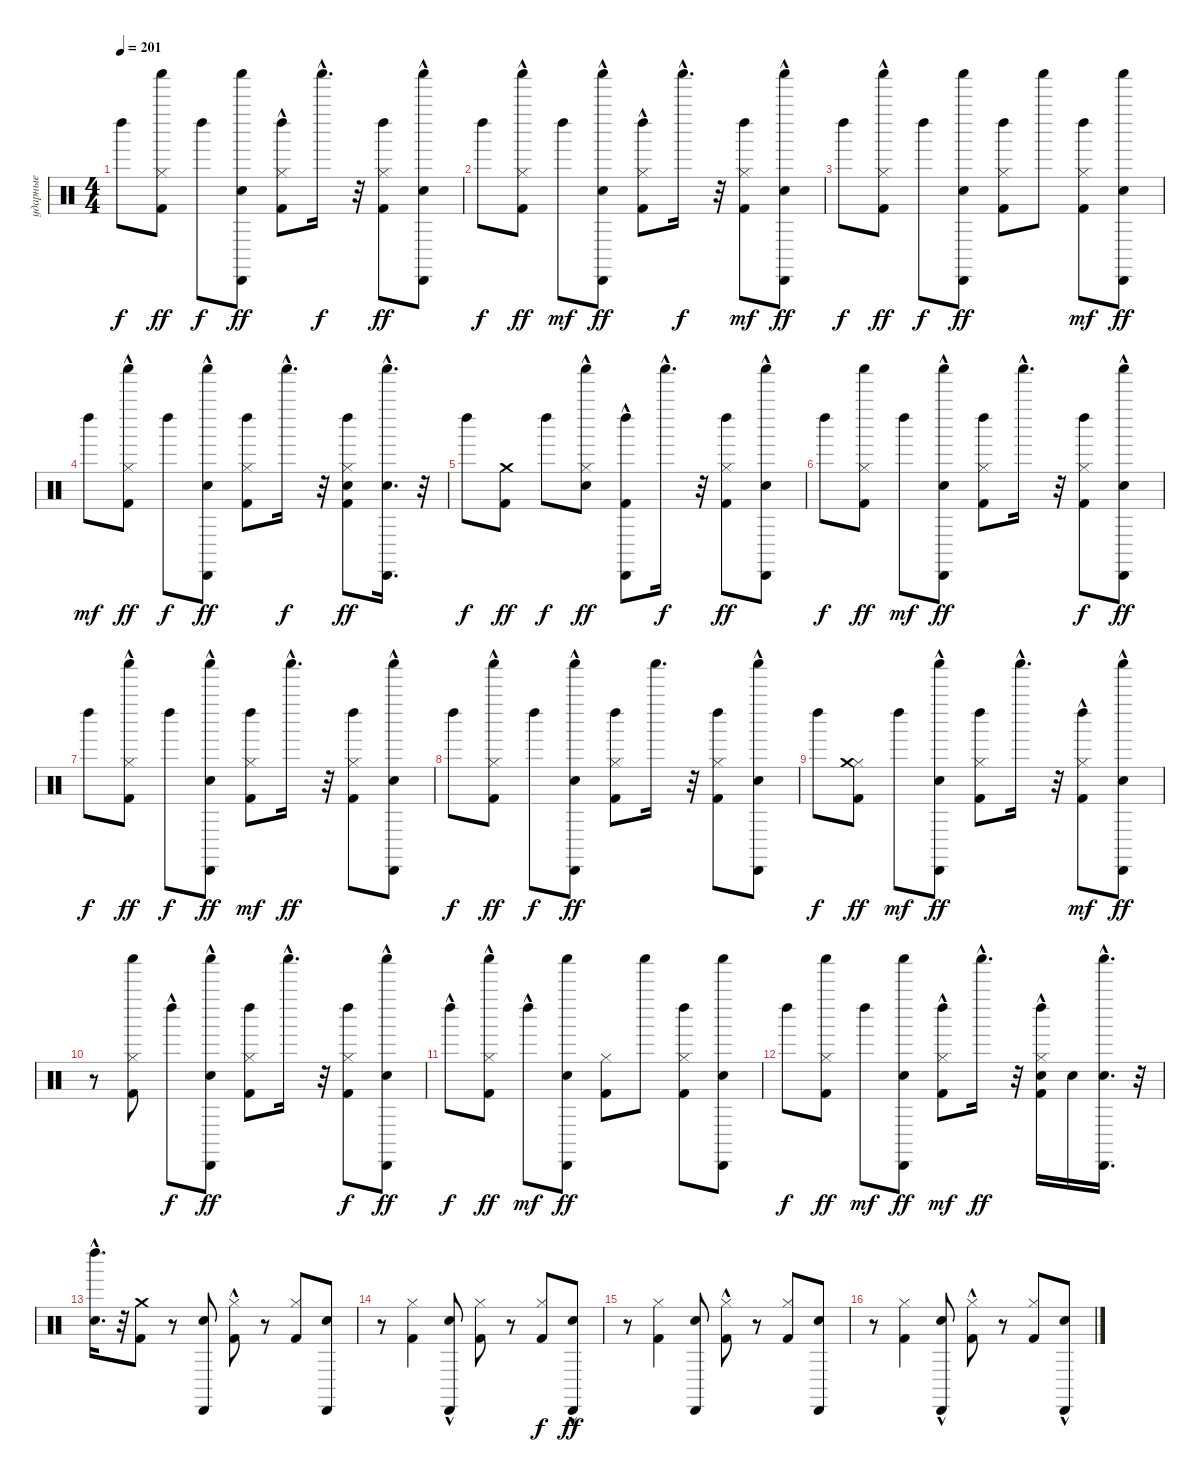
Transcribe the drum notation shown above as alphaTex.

\track ("ударные" "ударные") {instrument percussion}
\staff {score}
\articulation defaults
\ts (4 4)
\tempo 201
\clef neutral
\ks c "Left Maraca (hit)".8{dy f}
("Kick (hit) 2" "Hi-Hat (closed)" "Shaker (hit)").8{dy ff} "Left Maraca (hit)".8{dy f} ("Electric Snare (hit)" "Cabasa (hit)" "Shaker (hit)").8{dy ff} ("Kick (hit) 2" "Hi-Hat (closed)"{hac} "Left Maraca (hit)").8 "Shaker (hit)"{hac}.16{d dy f} r.32 ("Kick (hit) 2" "Hi-Hat (closed)" "Left Maraca (hit)").8{dy ff} ("Electric Snare (hit)" "Cabasa (hit)" "Shaker (hit)"{hac}).8 |
"Left Maraca (hit)".8{dy f} ("Kick (hit) 2" "Hi-Hat (closed)" "Shaker (hit)"{hac}).8{dy ff} "Left Maraca (hit)".8{dy mf} ("Electric Snare (hit)" "Cabasa (hit)" "Shaker (hit)"{hac}).8{dy ff} ("Kick (hit) 2" "Hi-Hat (closed)"{hac} "Left Maraca (hit)").8 "Shaker (hit)"{hac}.16{d dy f} r.32 ("Kick (hit) 2" "Hi-Hat (closed)" "Left Maraca (hit)").8{dy mf} ("Electric Snare (hit)" "Cabasa (hit)" "Shaker (hit)"{hac}).8{dy ff} |
"Left Maraca (hit)".8{dy f} ("Kick (hit) 2" "Hi-Hat (closed)" "Shaker (hit)"{hac}).8{dy ff} "Left Maraca (hit)".8{dy f} ("Electric Snare (hit)" "Cabasa (hit)" "Shaker (hit)").8{dy ff} ("Kick (hit) 2" "Hi-Hat (closed)" "Left Maraca (hit)").8 "Shaker (hit)".8 ("Kick (hit) 2" "Hi-Hat (closed)" "Left Maraca (hit)").8{dy mf} ("Electric Snare (hit)" "Cabasa (hit)" "Shaker (hit)").8{dy ff} |
"Left Maraca (hit)".8{dy mf} ("Kick (hit) 2" "Hi-Hat (closed)" "Shaker (hit)"{hac}).8{dy ff} "Left Maraca (hit)".8{dy f} ("Electric Snare (hit)" "Cabasa (hit)" "Shaker (hit)"{hac}).8{dy ff} ("Kick (hit) 2" "Hi-Hat (closed)" "Left Maraca (hit)").8 "Shaker (hit)"{hac}.16{d dy f} r.32 ("Kick (hit) 2" "Electric Snare (hit)" "Hi-Hat (closed)" "Left Maraca (hit)").8{dy ff} ("Electric Snare (hit)" "Cabasa (hit)"{hac} "Shaker (hit)"{hac}).16{d} r.32 |
"Left Maraca (hit)".8{dy f} ("Kick (hit) 2" "Crash medium (hit)").8{dy ff} "Left Maraca (hit)".8{dy f} ("Electric Snare (hit)" "Hi-Hat (closed)" "Shaker (hit)"{hac}).8{dy ff} ("Kick (hit) 2" "Cabasa (hit)"{hac} "Left Maraca (hit)").8 "Shaker (hit)"{hac}.16{d dy f} r.32 ("Kick (hit) 2" "Hi-Hat (closed)" "Left Maraca (hit)").8{dy ff} ("Electric Snare (hit)" "Cabasa (hit)"{hac} "Shaker (hit)"{hac}).8 |
"Left Maraca (hit)".8{dy f} ("Kick (hit) 2" "Hi-Hat (closed)" "Shaker (hit)").8{dy ff} "Left Maraca (hit)".8{dy mf} ("Electric Snare (hit)" "Cabasa (hit)"{hac} "Shaker (hit)"{hac}).8{dy ff} ("Kick (hit) 2" "Hi-Hat (closed)" "Left Maraca (hit)").8 "Shaker (hit)"{hac}.16{d} r.32 ("Kick (hit) 2" "Hi-Hat (closed)" "Left Maraca (hit)").8{dy f} ("Electric Snare (hit)" "Cabasa (hit)"{hac} "Shaker (hit)"{hac}).8{dy ff} |
"Left Maraca (hit)".8{dy f} ("Kick (hit) 2" "Hi-Hat (closed)" "Shaker (hit)"{hac}).8{dy ff} "Left Maraca (hit)".8{dy f} ("Electric Snare (hit)" "Cabasa (hit)"{hac} "Shaker (hit)"{hac}).8{dy ff} ("Kick (hit) 2" "Hi-Hat (closed)" "Left Maraca (hit)").8{dy mf} "Shaker (hit)"{hac}.16{d dy ff} r.32 ("Kick (hit) 2" "Hi-Hat (closed)" "Left Maraca (hit)").8 ("Electric Snare (hit)" "Cabasa (hit)" "Shaker (hit)"{hac}).8 |
"Left Maraca (hit)".8{dy f} ("Kick (hit) 2" "Hi-Hat (closed)" "Shaker (hit)"{hac}).8{dy ff} "Left Maraca (hit)".8{dy f} ("Electric Snare (hit)" "Cabasa (hit)" "Shaker (hit)"{hac}).8{dy ff} ("Kick (hit) 2" "Hi-Hat (closed)" "Left Maraca (hit)").8 "Shaker (hit)".16{d} r.32 ("Kick (hit) 2" "Hi-Hat (closed)" "Left Maraca (hit)").8 ("Electric Snare (hit)" "Cabasa (hit)" "Shaker (hit)"{hac}).8 |
"Left Maraca (hit)".8{dy f} ("Kick (hit) 2" "Hi-Hat (closed)" "Crash medium (hit)").8{dy ff} "Left Maraca (hit)".8{dy mf} ("Electric Snare (hit)" "Cabasa (hit)" "Shaker (hit)"{hac}).8{dy ff} ("Kick (hit) 2" "Hi-Hat (closed)" "Left Maraca (hit)").8 "Shaker (hit)"{hac}.16{d} r.32 ("Kick (hit) 2" "Hi-Hat (closed)" "Left Maraca (hit)"{hac}).8{dy mf} ("Electric Snare (hit)" "Cabasa (hit)"{hac} "Shaker (hit)").8{dy ff} |
r.8 ("Kick (hit) 2" "Hi-Hat (closed)" "Shaker (hit)").8 "Left Maraca (hit)"{hac}.8{dy f} ("Electric Snare (hit)" "Cabasa (hit)" "Shaker (hit)"{hac}).8{dy ff} ("Kick (hit) 2" "Hi-Hat (closed)" "Left Maraca (hit)").8 "Shaker (hit)"{hac}.16{d} r.32 ("Kick (hit) 2" "Hi-Hat (closed)" "Left Maraca (hit)").8{dy f} ("Electric Snare (hit)" "Cabasa (hit)" "Shaker (hit)"{hac}).8{dy ff} |
"Left Maraca (hit)"{hac}.8{dy f} ("Kick (hit) 2" "Hi-Hat (closed)"{hac} "Shaker (hit)"{hac}).8{dy ff} "Left Maraca (hit)"{hac}.8{dy mf} ("Electric Snare (hit)" "Cabasa (hit)" "Shaker (hit)").8{dy ff} ("Kick (hit) 2" "Hi-Hat (closed)").8 "Shaker (hit)".8 ("Kick (hit) 2" "Hi-Hat (closed)" "Left Maraca (hit)").8 ("Electric Snare (hit)" "Cabasa (hit)" "Shaker (hit)").8 |
"Left Maraca (hit)".8{dy f} ("Kick (hit) 2" "Hi-Hat (closed)" "Shaker (hit)").8{dy ff} "Left Maraca (hit)".8{dy mf} ("Electric Snare (hit)" "Cabasa (hit)" "Shaker (hit)").8{dy ff} ("Kick (hit) 2" "Hi-Hat (closed)"{hac} "Left Maraca (hit)").8{dy mf} "Shaker (hit)"{hac}.16{d dy ff} r.32 ("Kick (hit) 2" "Electric Snare (hit)" "Hi-Hat (closed)"{hac} "Left Maraca (hit)").16 "Electric Snare (hit)".16 ("Electric Snare (hit)" "Cabasa (hit)" "Shaker (hit)"{hac}).16{d} r.32 |
("Electric Snare (hit)" "Left Maraca (hit)"{hac}).16{d} r.32 ("Kick (hit) 2" "Crash medium (hit)").8 r.8 ("Electric Snare (hit)" "Cabasa (hit)").8 ("Kick (hit) 2" "Hi-Hat (closed)"{hac}).8 r.8 ("Kick (hit) 2" "Hi-Hat (closed)").8 ("Electric Snare (hit)" "Cabasa (hit)").8 |
r.8 ("Kick (hit) 2" "Hi-Hat (closed)").4 ("Electric Snare (hit)" "Cabasa (hit)"{hac}).8 ("Kick (hit) 2" "Hi-Hat (closed)").8 r.8 ("Kick (hit) 2" "Hi-Hat (closed)").8{dy f} ("Electric Snare (hit)" "Cabasa (hit)"{hac}).8{dy ff} |
r.8 ("Kick (hit) 2" "Hi-Hat (closed)").4 ("Electric Snare (hit)" "Cabasa (hit)").8 ("Kick (hit) 2" "Hi-Hat (closed)"{hac}).8 r.8 ("Kick (hit) 2" "Hi-Hat (closed)").8 ("Electric Snare (hit)" "Cabasa (hit)").8 |
r.8 ("Kick (hit) 2" "Hi-Hat (closed)").4 ("Electric Snare (hit)" "Cabasa (hit)"{hac}).8 ("Kick (hit) 2" "Hi-Hat (closed)"{hac}).8 r.8 ("Kick (hit) 2" "Hi-Hat (closed)").8 ("Electric Snare (hit)" "Cabasa (hit)"{hac}).8
